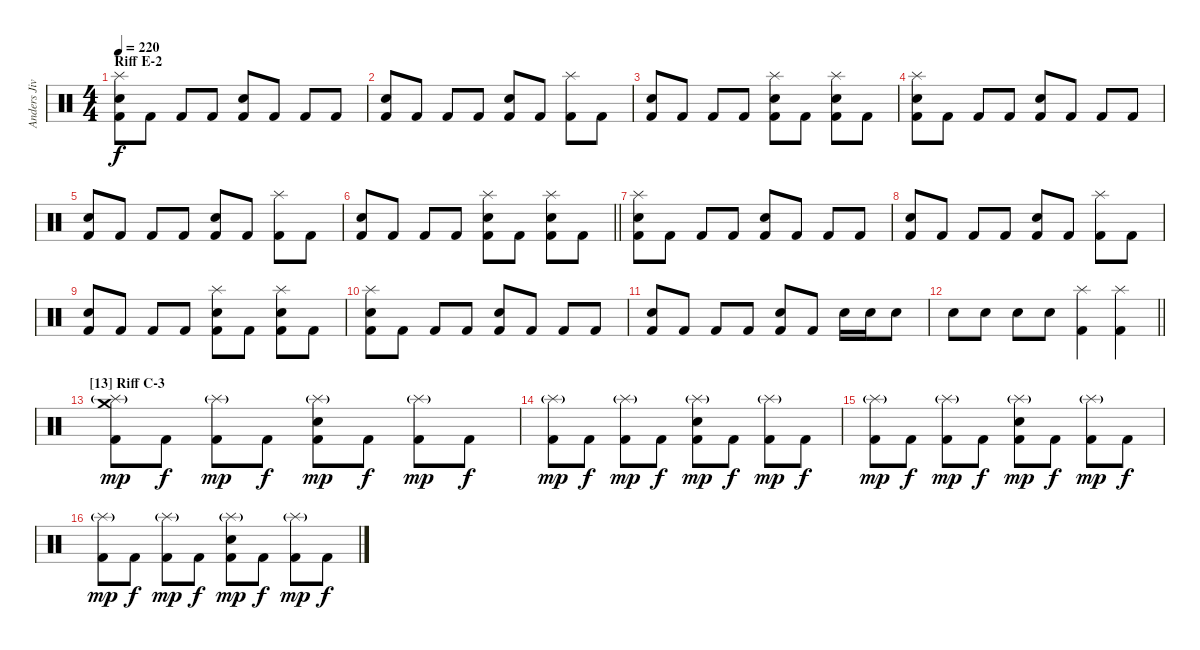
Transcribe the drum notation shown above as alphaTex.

\track ("Anders Jivarp" "Anders Jiv") {instrument percussion}
\staff {score}
\articulation defaults
\ts (4 4)
\section ("" "Riff E-2")
\tempo 220
\clef neutral
\ks c
("Splash (hit)" "Electric Snare (hit)" "Kick (hit) 2").8{dy f} "Kick (hit) 2".8 "Kick (hit) 2".8 "Kick (hit) 2".8 ("Electric Snare (hit)" "Kick (hit) 2").8 "Kick (hit) 2".8 "Kick (hit) 2".8 "Kick (hit) 2".8 |
("Electric Snare (hit)" "Kick (hit) 2").8 "Kick (hit) 2".8 "Kick (hit) 2".8 "Kick (hit) 2".8 ("Electric Snare (hit)" "Kick (hit) 2").8 "Kick (hit) 2".8 ("Splash (hit)" "Kick (hit) 2").8 "Kick (hit) 2".8 |
("Electric Snare (hit)" "Kick (hit) 2").8 "Kick (hit) 2".8 "Kick (hit) 2".8 "Kick (hit) 2".8 ("Splash (hit)" "Electric Snare (hit)" "Kick (hit) 2").8 "Kick (hit) 2".8 ("Splash (hit)" "Electric Snare (hit)" "Kick (hit) 2").8 "Kick (hit) 2".8 |
("Splash (hit)" "Electric Snare (hit)" "Kick (hit) 2").8 "Kick (hit) 2".8 "Kick (hit) 2".8 "Kick (hit) 2".8 ("Electric Snare (hit)" "Kick (hit) 2").8 "Kick (hit) 2".8 "Kick (hit) 2".8 "Kick (hit) 2".8 |
("Electric Snare (hit)" "Kick (hit) 2").8 "Kick (hit) 2".8 "Kick (hit) 2".8 "Kick (hit) 2".8 ("Electric Snare (hit)" "Kick (hit) 2").8 "Kick (hit) 2".8 ("Splash (hit)" "Kick (hit) 2").8 "Kick (hit) 2".8 |
\barLineRight lightlight
("Electric Snare (hit)" "Kick (hit) 2").8 "Kick (hit) 2".8 "Kick (hit) 2".8 "Kick (hit) 2".8 ("Splash (hit)" "Electric Snare (hit)" "Kick (hit) 2").8 "Kick (hit) 2".8 ("Splash (hit)" "Electric Snare (hit)" "Kick (hit) 2").8 "Kick (hit) 2".8 |
("Splash (hit)" "Electric Snare (hit)" "Kick (hit) 2").8 "Kick (hit) 2".8 "Kick (hit) 2".8 "Kick (hit) 2".8 ("Electric Snare (hit)" "Kick (hit) 2").8 "Kick (hit) 2".8 "Kick (hit) 2".8 "Kick (hit) 2".8 |
("Electric Snare (hit)" "Kick (hit) 2").8 "Kick (hit) 2".8 "Kick (hit) 2".8 "Kick (hit) 2".8 ("Electric Snare (hit)" "Kick (hit) 2").8 "Kick (hit) 2".8 ("Splash (hit)" "Kick (hit) 2").8 "Kick (hit) 2".8 |
("Electric Snare (hit)" "Kick (hit) 2").8 "Kick (hit) 2".8 "Kick (hit) 2".8 "Kick (hit) 2".8 ("Splash (hit)" "Electric Snare (hit)" "Kick (hit) 2").8 "Kick (hit) 2".8 ("Splash (hit)" "Electric Snare (hit)" "Kick (hit) 2").8 "Kick (hit) 2".8 |
("Splash (hit)" "Electric Snare (hit)" "Kick (hit) 2").8 "Kick (hit) 2".8 "Kick (hit) 2".8 "Kick (hit) 2".8 ("Electric Snare (hit)" "Kick (hit) 2").8 "Kick (hit) 2".8 "Kick (hit) 2".8 "Kick (hit) 2".8 |
("Electric Snare (hit)" "Kick (hit) 2").8 "Kick (hit) 2".8 "Kick (hit) 2".8 "Kick (hit) 2".8 ("Electric Snare (hit)" "Kick (hit) 2").8 "Kick (hit) 2".8 "Electric Snare (hit)".16 "Electric Snare (hit)".16 "Electric Snare (hit)".8 |
\barLineRight lightlight "Electric Snare (hit)".8 "Electric Snare (hit)".8 "Electric Snare (hit)".8 "Electric Snare (hit)".8
("Splash (hit)" "Kick (hit) 2").4 ("Splash (hit)" "Kick (hit) 2").4 |
\section ("" "[13] Riff C-3")
("Crash medium (hit)" "Splash (hit)"{g} "Kick (hit) 2").8{dy mp} "Kick (hit) 2".8{dy f} ("Splash (hit)"{g} "Kick (hit) 2").8{dy mp} "Kick (hit) 2".8{dy f} ("Splash (hit)"{g} "Electric Snare (hit)" "Kick (hit) 2").8{dy mp} "Kick (hit) 2".8{dy f} ("Splash (hit)"{g} "Kick (hit) 2").8{dy mp} "Kick (hit) 2".8{dy f} |
("Splash (hit)"{g} "Kick (hit) 2").8{dy mp} "Kick (hit) 2".8{dy f} ("Splash (hit)"{g} "Kick (hit) 2").8{dy mp} "Kick (hit) 2".8{dy f} ("Splash (hit)"{g} "Electric Snare (hit)" "Kick (hit) 2").8{dy mp} "Kick (hit) 2".8{dy f} ("Splash (hit)"{g} "Kick (hit) 2").8{dy mp} "Kick (hit) 2".8{dy f} |
("Splash (hit)"{g} "Kick (hit) 2").8{dy mp} "Kick (hit) 2".8{dy f} ("Splash (hit)"{g} "Kick (hit) 2").8{dy mp} "Kick (hit) 2".8{dy f} ("Splash (hit)"{g} "Electric Snare (hit)" "Kick (hit) 2").8{dy mp} "Kick (hit) 2".8{dy f} ("Splash (hit)"{g} "Kick (hit) 2").8{dy mp} "Kick (hit) 2".8{dy f} |
("Splash (hit)"{g} "Kick (hit) 2").8{dy mp} "Kick (hit) 2".8{dy f} ("Splash (hit)"{g} "Kick (hit) 2").8{dy mp} "Kick (hit) 2".8{dy f} ("Splash (hit)"{g} "Electric Snare (hit)" "Kick (hit) 2").8{dy mp} "Kick (hit) 2".8{dy f} ("Splash (hit)"{g} "Kick (hit) 2").8{dy mp} "Kick (hit) 2".8{dy f}
